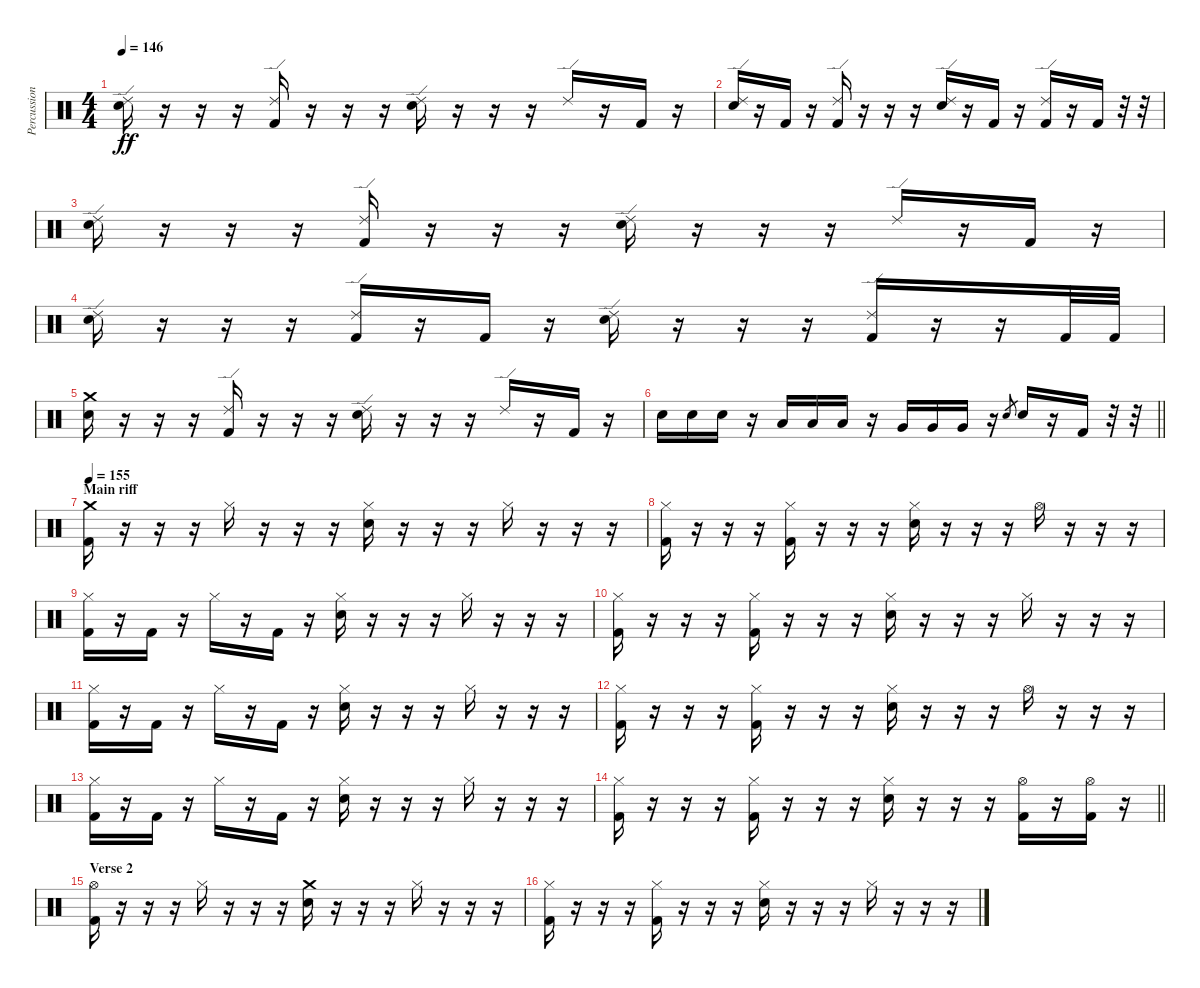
\track ("Percussion" "Percussion") {instrument percussion}
\staff {score}
\articulation defaults
\ts (4 4)
\tempo 146
\clef neutral
\ks c
("Ride (edge) 2" "Electric Snare (hit)").16{dy ff} r.16 r.16 r.16 ("Ride (edge) 2" "Kick (hit) 2").16 r.16 r.16 r.16 ("Ride (edge) 2" "Electric Snare (hit)").16 r.16 r.16 r.16 "Ride (edge) 2".16 r.16 "Kick (hit) 2".16 r.16 |
("Ride (edge) 2" "Electric Snare (hit)").16 r.16 "Kick (hit) 2".16 r.16 ("Ride (edge) 2" "Kick (hit) 2").16 r.16 r.16 r.16 ("Ride (edge) 2" "Electric Snare (hit)").16 r.16 "Kick (hit) 2".16 r.16 ("Ride (edge) 2" "Kick (hit) 2").16 r.16 "Kick (hit) 2".16 r.32 r.32 |
("Ride (edge) 2" "Electric Snare (hit)").16 r.16 r.16 r.16 ("Ride (edge) 2" "Kick (hit) 2").16 r.16 r.16 r.16 ("Ride (edge) 2" "Electric Snare (hit)").16 r.16 r.16 r.16 "Ride (edge) 2".16 r.16 "Kick (hit) 2".16 r.16 |
("Ride (edge) 2" "Electric Snare (hit)").16 r.16 r.16 r.16 ("Ride (edge) 2" "Kick (hit) 2").16 r.16 "Kick (hit) 2".16 r.16 ("Ride (edge) 2" "Electric Snare (hit)").16 r.16 r.16 r.16 ("Ride (edge) 2" "Kick (hit) 2").16 r.16 r.16 "Kick (hit) 2".32 "Kick (hit) 2".32 |
("Crash medium (hit)" "Electric Snare (hit)").16 r.16 r.16 r.16 ("Ride (edge) 2" "Kick (hit) 2").16 r.16 r.16 r.16 ("Ride (edge) 2" "Electric Snare (hit)").16 r.16 r.16 r.16 "Ride (edge) 2".16 r.16 "Kick (hit) 2".16 r.16 |
\barLineRight lightlight "Electric Snare (hit)".16 "Electric Snare (hit)".16 "Electric Snare (hit)".16
r.16 "Low Tom (hit)".16 "Low Tom (hit)".16 "Low Tom (hit)".16 r.16 "Very Low Tom (hit)".16 "Very Low Tom (hit)".16 "Very Low Tom (hit)".16 r.16 "Electric Snare (hit)".8{gr} "Electric Snare (hit)".16 r.16 "Kick (hit) 2".16 r.32 r.32 |
\section ("" "Main riff")
\tempo 155
("Crash medium (hit)" "Kick (hit) 2").16 r.16 r.16 r.16 "Hi-Hat (closed)".16 r.16 r.16 r.16 ("Hi-Hat (closed)" "Electric Snare (hit)").16 r.16 r.16 r.16 "Hi-Hat (closed)".16 r.16 r.16 r.16 |
("Hi-Hat (closed)" "Kick (hit) 2").16 r.16 r.16 r.16 ("Hi-Hat (closed)" "Kick (hit) 2").16 r.16 r.16 r.16 ("Hi-Hat (closed)" "Electric Snare (hit)").16 r.16 r.16 r.16 "Hi-Hat (open)".16 r.16 r.16 r.16 |
("Hi-Hat (closed)" "Kick (hit) 2").16 r.16 "Kick (hit) 2".16 r.16 "Hi-Hat (closed)".16 r.16 "Kick (hit) 2".16 r.16 ("Hi-Hat (closed)" "Electric Snare (hit)").16 r.16 r.16 r.16 "Hi-Hat (closed)".16 r.16 r.16 r.16 |
("Hi-Hat (closed)" "Kick (hit) 2").16 r.16 r.16 r.16 ("Hi-Hat (closed)" "Kick (hit) 2").16 r.16 r.16 r.16 ("Hi-Hat (closed)" "Electric Snare (hit)").16 r.16 r.16 r.16 "Hi-Hat (closed)".16 r.16 r.16 r.16 |
("Hi-Hat (closed)" "Kick (hit) 2").16 r.16 "Kick (hit) 2".16 r.16 "Hi-Hat (closed)".16 r.16 "Kick (hit) 2".16 r.16 ("Hi-Hat (closed)" "Electric Snare (hit)").16 r.16 r.16 r.16 "Hi-Hat (closed)".16 r.16 r.16 r.16 |
("Hi-Hat (closed)" "Kick (hit) 2").16 r.16 r.16 r.16 ("Hi-Hat (closed)" "Kick (hit) 2").16 r.16 r.16 r.16 ("Hi-Hat (closed)" "Electric Snare (hit)").16 r.16 r.16 r.16 "Hi-Hat (open)".16 r.16 r.16 r.16 |
("Hi-Hat (closed)" "Kick (hit) 2").16 r.16 "Kick (hit) 2".16 r.16 "Hi-Hat (closed)".16 r.16 "Kick (hit) 2".16 r.16 ("Hi-Hat (closed)" "Electric Snare (hit)").16 r.16 r.16 r.16 "Hi-Hat (closed)".16 r.16 r.16 r.16 |
\barLineRight lightlight
("Hi-Hat (closed)" "Kick (hit) 2").16 r.16 r.16 r.16 ("Hi-Hat (closed)" "Kick (hit) 2").16 r.16 r.16 r.16 ("Hi-Hat (closed)" "Electric Snare (hit)").16 r.16 r.16 r.16 ("Hi-Hat (open)" "Kick (hit) 2").16 r.16 ("Hi-Hat (open)" "Kick (hit) 2").16 r.16 |
\section ("" "Verse 2")
("Hi-Hat (open)" "Kick (hit) 2").16 r.16 r.16 r.16 "Hi-Hat (closed)".16 r.16 r.16 r.16 ("Crash medium (hit)" "Electric Snare (hit)").16 r.16 r.16 r.16 "Hi-Hat (closed)".16 r.16 r.16 r.16 |
("Hi-Hat (closed)" "Kick (hit) 2").16 r.16 r.16 r.16 ("Hi-Hat (closed)" "Kick (hit) 2").16 r.16 r.16 r.16 ("Hi-Hat (closed)" "Electric Snare (hit)").16 r.16 r.16 r.16 "Hi-Hat (closed)".16 r.16 r.16 r.16
